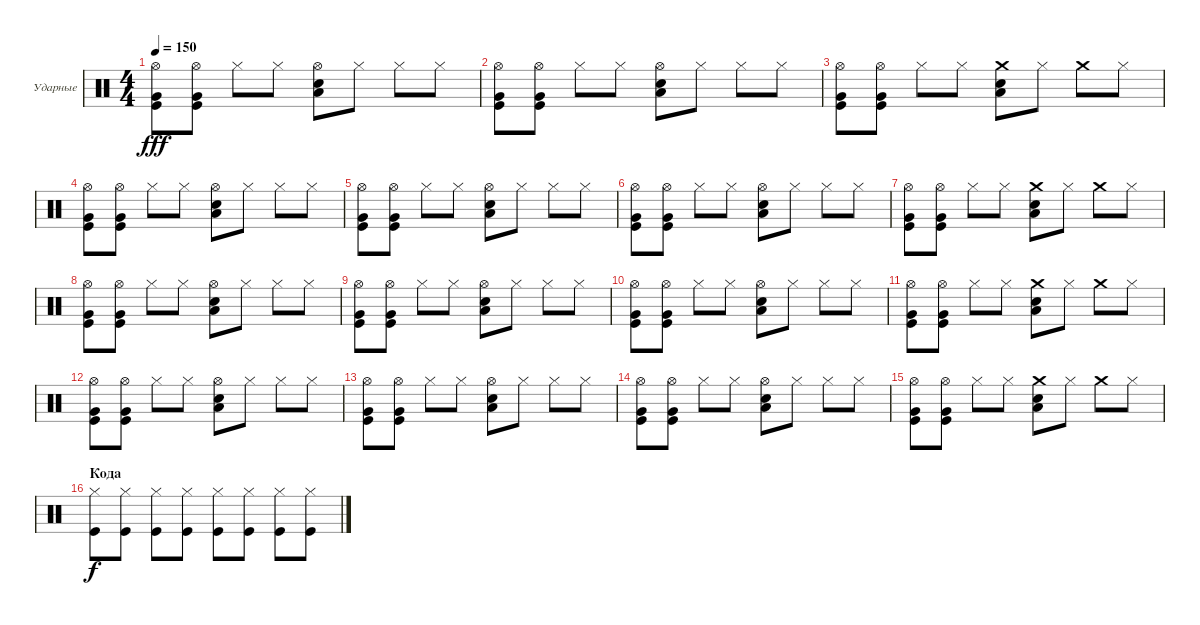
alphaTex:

\bracketExtendMode groupsimilarinstruments
\firstSystemTrackNameOrientation horizontal
\otherSystemsTrackNameOrientation horizontal
\track ("Максим Удалов" "Ударные") {instrument percussion}
\staff {score}
\articulation defaults
\ts (4 4)
\tempo 150
\clef neutral
\ks c
("Hi-Hat (open)" "Very Low Tom (hit)" "Kick (hit)").8{dy fff} ("Hi-Hat (open)" "Very Low Tom (hit)" "Kick (hit)").8 "Hi-Hat (closed)".8 "Hi-Hat (closed)".8 ("Hi-Hat (open)" "Low Tom (hit)" "Snare (hit) 2").8 "Hi-Hat (closed)".8 "Hi-Hat (closed)".8 "Hi-Hat (closed)".8 |
("Hi-Hat (open)" "Very Low Tom (hit)" "Kick (hit)").8 ("Hi-Hat (open)" "Very Low Tom (hit)" "Kick (hit)").8 "Hi-Hat (closed)".8 "Hi-Hat (closed)".8 ("Hi-Hat (open)" "Low Tom (hit)" "Snare (hit) 2").8 "Hi-Hat (closed)".8 "Hi-Hat (closed)".8 "Hi-Hat (closed)".8 |
("Hi-Hat (open)" "Very Low Tom (hit)" "Kick (hit)").8 ("Hi-Hat (open)" "Very Low Tom (hit)" "Kick (hit)").8 "Hi-Hat (closed)".8 "Hi-Hat (closed)".8 ("Crash medium (hit)" "Low Tom (hit)" "Snare (hit) 2").8 "Hi-Hat (closed)".8 "Crash medium (hit)".8 "Hi-Hat (closed)".8 |
("Hi-Hat (open)" "Very Low Tom (hit)" "Kick (hit)").8 ("Hi-Hat (open)" "Very Low Tom (hit)" "Kick (hit)").8 "Hi-Hat (closed)".8 "Hi-Hat (closed)".8 ("Hi-Hat (open)" "Low Tom (hit)" "Snare (hit) 2").8 "Hi-Hat (closed)".8 "Hi-Hat (closed)".8 "Hi-Hat (closed)".8 |
("Hi-Hat (open)" "Very Low Tom (hit)" "Kick (hit)").8 ("Hi-Hat (open)" "Very Low Tom (hit)" "Kick (hit)").8 "Hi-Hat (closed)".8 "Hi-Hat (closed)".8 ("Hi-Hat (open)" "Low Tom (hit)" "Snare (hit) 2").8 "Hi-Hat (closed)".8 "Hi-Hat (closed)".8 "Hi-Hat (closed)".8 |
("Hi-Hat (open)" "Very Low Tom (hit)" "Kick (hit)").8 ("Hi-Hat (open)" "Very Low Tom (hit)" "Kick (hit)").8 "Hi-Hat (closed)".8 "Hi-Hat (closed)".8 ("Hi-Hat (open)" "Low Tom (hit)" "Snare (hit) 2").8 "Hi-Hat (closed)".8 "Hi-Hat (closed)".8 "Hi-Hat (closed)".8 |
("Hi-Hat (open)" "Very Low Tom (hit)" "Kick (hit)").8 ("Hi-Hat (open)" "Very Low Tom (hit)" "Kick (hit)").8 "Hi-Hat (closed)".8 "Hi-Hat (closed)".8 ("Crash medium (hit)" "Low Tom (hit)" "Snare (hit) 2").8 "Hi-Hat (closed)".8 "Crash medium (hit)".8 "Hi-Hat (closed)".8 |
("Hi-Hat (open)" "Very Low Tom (hit)" "Kick (hit)").8 ("Hi-Hat (open)" "Very Low Tom (hit)" "Kick (hit)").8 "Hi-Hat (closed)".8 "Hi-Hat (closed)".8 ("Hi-Hat (open)" "Low Tom (hit)" "Snare (hit) 2").8 "Hi-Hat (closed)".8 "Hi-Hat (closed)".8 "Hi-Hat (closed)".8 |
("Hi-Hat (open)" "Very Low Tom (hit)" "Kick (hit)").8 ("Hi-Hat (open)" "Very Low Tom (hit)" "Kick (hit)").8 "Hi-Hat (closed)".8 "Hi-Hat (closed)".8 ("Hi-Hat (open)" "Low Tom (hit)" "Snare (hit) 2").8 "Hi-Hat (closed)".8 "Hi-Hat (closed)".8 "Hi-Hat (closed)".8 |
("Hi-Hat (open)" "Very Low Tom (hit)" "Kick (hit)").8 ("Hi-Hat (open)" "Very Low Tom (hit)" "Kick (hit)").8 "Hi-Hat (closed)".8 "Hi-Hat (closed)".8 ("Hi-Hat (open)" "Low Tom (hit)" "Snare (hit) 2").8 "Hi-Hat (closed)".8 "Hi-Hat (closed)".8 "Hi-Hat (closed)".8 |
("Hi-Hat (open)" "Very Low Tom (hit)" "Kick (hit)").8 ("Hi-Hat (open)" "Very Low Tom (hit)" "Kick (hit)").8 "Hi-Hat (closed)".8 "Hi-Hat (closed)".8 ("Crash medium (hit)" "Low Tom (hit)" "Snare (hit) 2").8 "Hi-Hat (closed)".8 "Crash medium (hit)".8 "Hi-Hat (closed)".8 |
("Hi-Hat (open)" "Very Low Tom (hit)" "Kick (hit)").8 ("Hi-Hat (open)" "Very Low Tom (hit)" "Kick (hit)").8 "Hi-Hat (closed)".8 "Hi-Hat (closed)".8 ("Hi-Hat (open)" "Low Tom (hit)" "Snare (hit) 2").8 "Hi-Hat (closed)".8 "Hi-Hat (closed)".8 "Hi-Hat (closed)".8 |
("Hi-Hat (open)" "Very Low Tom (hit)" "Kick (hit)").8 ("Hi-Hat (open)" "Very Low Tom (hit)" "Kick (hit)").8 "Hi-Hat (closed)".8 "Hi-Hat (closed)".8 ("Hi-Hat (open)" "Low Tom (hit)" "Snare (hit) 2").8 "Hi-Hat (closed)".8 "Hi-Hat (closed)".8 "Hi-Hat (closed)".8 |
("Hi-Hat (open)" "Very Low Tom (hit)" "Kick (hit)").8 ("Hi-Hat (open)" "Very Low Tom (hit)" "Kick (hit)").8 "Hi-Hat (closed)".8 "Hi-Hat (closed)".8 ("Hi-Hat (open)" "Low Tom (hit)" "Snare (hit) 2").8 "Hi-Hat (closed)".8 "Hi-Hat (closed)".8 "Hi-Hat (closed)".8 |
("Hi-Hat (open)" "Very Low Tom (hit)" "Kick (hit)").8 ("Hi-Hat (open)" "Very Low Tom (hit)" "Kick (hit)").8 "Hi-Hat (closed)".8 "Hi-Hat (closed)".8 ("Crash medium (hit)" "Low Tom (hit)" "Snare (hit) 2").8 "Hi-Hat (closed)".8 "Crash medium (hit)".8 "Hi-Hat (closed)".8 |
\section ("" "Кода")
("Kick (hit)" "Hi-Hat (closed)").8{dy f} ("Kick (hit)" "Hi-Hat (closed)").8 ("Kick (hit)" "Hi-Hat (closed)").8 ("Kick (hit)" "Hi-Hat (closed)").8 ("Kick (hit)" "Hi-Hat (closed)").8 ("Kick (hit)" "Hi-Hat (closed)").8 ("Kick (hit)" "Hi-Hat (closed)").8 ("Kick (hit)" "Hi-Hat (closed)").8
